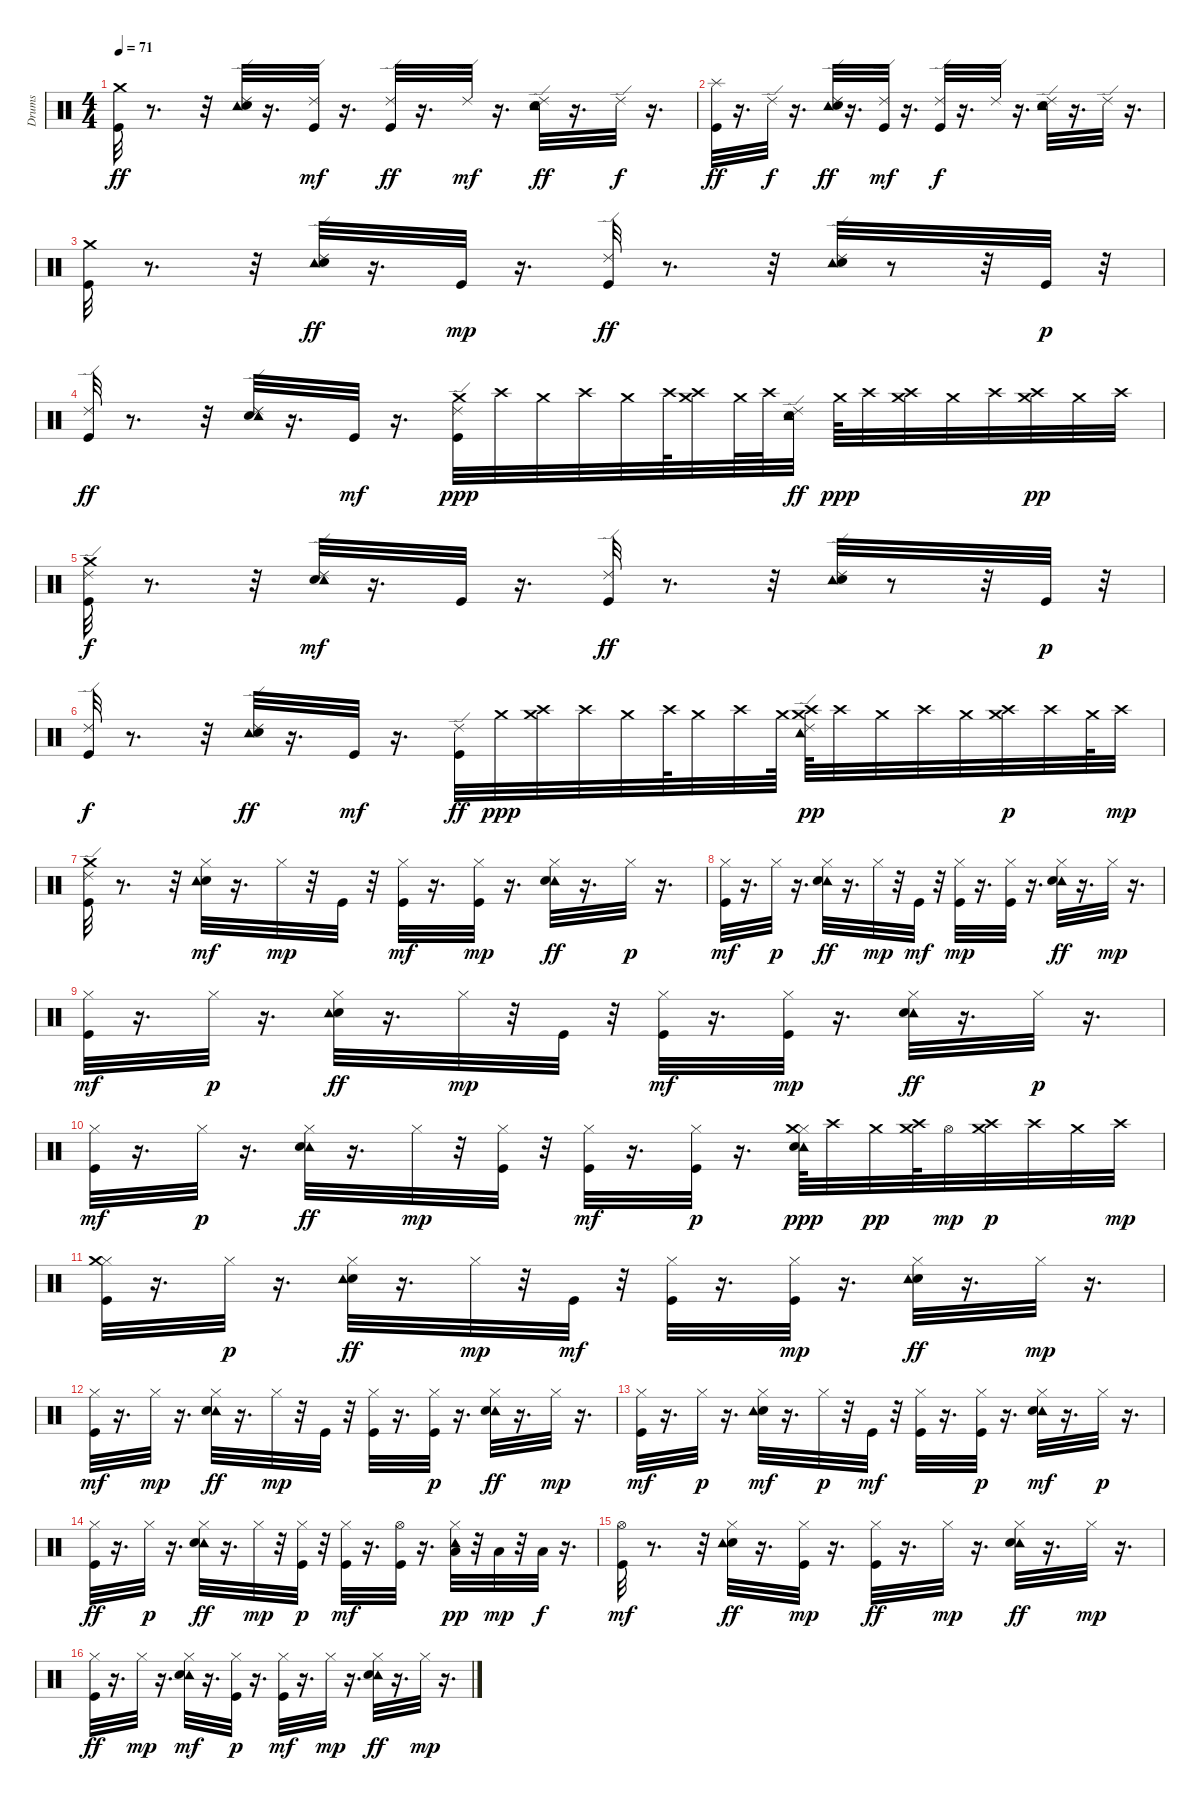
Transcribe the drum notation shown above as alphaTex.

\track ("Drums" "Drums") {instrument percussion}
\staff {score}
\articulation defaults
\ts (4 4)
\tempo 71
\clef neutral
\ks c
("Crash medium (hit)" "Kick (hit)").32{dy ff} r.8{d} r.32 ("Tambourine (hit)" "Ride (edge) 2" "Snare (hit) 2").32 r.16{d} ("Kick (hit)" "Ride (edge) 2").32{dy mf} r.16{d} ("Kick (hit)" "Ride (edge) 2").32{dy ff} r.16{d} "Ride (edge) 2".32{dy mf} r.16{d} ("Ride (edge) 2" "Tambourine (hit)" "Snare (hit) 2").32{dy ff} r.16{d} "Ride (edge) 2".32{dy f} r.16{d} |
("Splash (hit)" "Kick (hit)").32{dy ff} r.16{d} "Ride (edge) 2".32{dy f} r.16{d} ("Ride (edge) 2" "Tambourine (hit)" "Snare (hit) 2").32{dy ff} r.16{d} ("Kick (hit)" "Ride (edge) 2").32{dy mf} r.16{d} ("Kick (hit)" "Ride (edge) 2").32{dy f} r.16{d} "Ride (edge) 2".32 r.16{d} ("Tambourine (hit)" "Snare (hit) 2" "Ride (edge) 2").32 r.16{d} "Ride (edge) 2".32 r.16{d} |
("Kick (hit)" "Crash medium (hit)").32 r.8{d} r.32 ("Ride (edge) 2" "Tambourine (hit)" "Snare (hit) 2").32{dy ff} r.16{d} "Kick (hit)".32{dy mp} r.16{d} ("Ride (edge) 2" "Kick (hit)").32{dy ff} r.8{d} r.32 ("Ride (edge) 2" "Tambourine (hit)" "Snare (hit) 2").32 r.8 r.32 "Kick (hit)".32{dy p} r.32 |
("Kick (hit)" "Ride (edge) 2").32{dy ff} r.8{d} r.32 ("Snare (hit) 2" "Ride (edge) 2" "Tambourine (hit)").32 r.16{d} "Kick (hit)".32{dy mf} r.16{d} ("Kick (hit)" "Ride (edge) 2" "Crash medium (hit)").32{dy ppp} "Crash high (hit)".32 "Crash medium (hit)".32 "Crash high (hit)".32 "Crash medium (hit)".32 "Crash high (hit)".64 ("Crash medium (hit)" "Crash high (hit)").32 "Crash medium (hit)".64 "Crash high (hit)".64 ("Snare (hit) 2" "Ride (edge) 2" "Tambourine (hit)").32{dy ff} "Crash medium (hit)".64{dy ppp} "Crash high (hit)".32 ("Crash medium (hit)" "Crash high (hit)").32 "Crash medium (hit)".32 "Crash high (hit)".32 ("Crash medium (hit)" "Crash high (hit)").32{dy pp} "Crash medium (hit)".32 "Crash high (hit)".32 |
("Kick (hit)" "Ride (edge) 2" "Crash medium (hit)").32{dy f} r.8{d} r.32 ("Ride (edge) 2" "Snare (hit) 2" "Tambourine (hit)").32{dy mf} r.16{d} "Kick (hit)".32 r.16{d} ("Kick (hit)" "Ride (edge) 2").32{dy ff} r.8{d} r.32 ("Ride (edge) 2" "Tambourine (hit)" "Snare (hit) 2").32 r.8 r.32 "Kick (hit)".32{dy p} r.32 |
("Kick (hit)" "Ride (edge) 2").32{dy f} r.8{d} r.32 ("Ride (edge) 2" "Tambourine (hit)" "Snare (hit) 2").32{dy ff} r.16{d} "Kick (hit)".32{dy mf} r.16{d} ("Kick (hit)" "Ride (edge) 2").32{dy ff} "Crash medium (hit)".32{dy ppp} ("Crash high (hit)" "Crash medium (hit)").32 "Crash high (hit)".32 "Crash medium (hit)".32 "Crash high (hit)".64 "Crash medium (hit)".32 "Crash high (hit)".32 "Crash medium (hit)".64 ("Crash high (hit)" "Tambourine (hit)" "Ride (edge) 2" "Crash medium (hit)").64{dy pp} "Crash high (hit)".32 "Crash medium (hit)".32 "Crash high (hit)".32 "Crash medium (hit)".32 ("Crash high (hit)" "Crash medium (hit)").32{dy p} "Crash high (hit)".32 "Crash medium (hit)".64 "Crash high (hit)".32{dy mp} |
("Kick (hit)" "Ride (edge) 2" "Crash medium (hit)").32 r.8{d} r.32 ("Snare (hit) 2" "Hi-Hat (closed)" "Tambourine (hit)").32{dy mf} r.16{d} "Hi-Hat (closed)".32{dy mp} r.32 "Kick (hit)".32 r.32 ("Kick (hit)" "Hi-Hat (closed)").32{dy mf} r.16{d} ("Kick (hit)" "Hi-Hat (closed)").32{dy mp} r.16{d} ("Hi-Hat (closed)" "Tambourine (hit)" "Snare (hit) 2").32{dy ff} r.16{d} "Hi-Hat (closed)".32{dy p} r.16{d} |
("Kick (hit)" "Hi-Hat (closed)").32{dy mf} r.16{d} "Hi-Hat (closed)".32{dy p} r.16{d} ("Hi-Hat (closed)" "Tambourine (hit)" "Snare (hit) 2").32{dy ff} r.16{d} "Hi-Hat (closed)".32{dy mp} r.32 "Kick (hit)".32{dy mf} r.32 ("Kick (hit)" "Hi-Hat (closed)").32{dy mp} r.16{d} ("Kick (hit)" "Hi-Hat (closed)").32 r.16{d} ("Hi-Hat (closed)" "Tambourine (hit)" "Snare (hit) 2").32{dy ff} r.16{d} "Hi-Hat (closed)".32{dy mp} r.16{d} |
("Kick (hit)" "Hi-Hat (closed)").32{dy mf} r.16{d} "Hi-Hat (closed)".32{dy p} r.16{d} ("Hi-Hat (closed)" "Snare (hit) 2" "Tambourine (hit)").32{dy ff} r.16{d} "Hi-Hat (closed)".32{dy mp} r.32 "Kick (hit)".32 r.32 ("Kick (hit)" "Hi-Hat (closed)").32{dy mf} r.16{d} ("Kick (hit)" "Hi-Hat (closed)").32{dy mp} r.16{d} ("Hi-Hat (closed)" "Tambourine (hit)" "Snare (hit) 2").32{dy ff} r.16{d} "Hi-Hat (closed)".32{dy p} r.16{d} |
("Kick (hit)" "Hi-Hat (closed)").32{dy mf} r.16{d} "Hi-Hat (closed)".32{dy p} r.16{d} ("Hi-Hat (closed)" "Tambourine (hit)" "Snare (hit) 2").32{dy ff} r.16{d} "Hi-Hat (closed)".32{dy mp} r.32 ("Kick (hit)" "Hi-Hat (closed)").32 r.32 ("Kick (hit)" "Hi-Hat (closed)").32{dy mf} r.16{d} ("Kick (hit)" "Hi-Hat (closed)").32{dy p} r.16{d} ("Hi-Hat (closed)" "Tambourine (hit)" "Snare (hit) 2" "Crash medium (hit)").64{dy ppp} "Crash high (hit)".32 "Crash medium (hit)".32{dy pp} ("Crash high (hit)" "Crash medium (hit)").64 "Hi-Hat (open)".32{dy mp} ("Crash high (hit)" "Crash medium (hit)").32{dy p} "Crash high (hit)".32 "Crash medium (hit)".32 "Crash high (hit)".32{dy mp} |
("Kick (hit)" "Hi-Hat (closed)" "Crash medium (hit)").32 r.16{d} "Hi-Hat (closed)".32{dy p} r.16{d} ("Hi-Hat (closed)" "Snare (hit) 2" "Tambourine (hit)").32{dy ff} r.16{d} "Hi-Hat (closed)".32{dy mp} r.32 "Kick (hit)".32{dy mf} r.32 ("Kick (hit)" "Hi-Hat (closed)").32 r.16{d} ("Kick (hit)" "Hi-Hat (closed)").32{dy mp} r.16{d} ("Hi-Hat (closed)" "Snare (hit) 2" "Tambourine (hit)").32{dy ff} r.16{d} "Hi-Hat (closed)".32{dy mp} r.16{d} |
("Kick (hit)" "Hi-Hat (closed)").32{dy mf} r.16{d} "Hi-Hat (closed)".32{dy mp} r.16{d} ("Hi-Hat (closed)" "Tambourine (hit)" "Snare (hit) 2").32{dy ff} r.16{d} "Hi-Hat (closed)".32{dy mp} r.32 "Kick (hit)".32 r.32 ("Hi-Hat (closed)" "Kick (hit)").32 r.16{d} ("Kick (hit)" "Hi-Hat (closed)").32{dy p} r.16{d} ("Hi-Hat (closed)" "Tambourine (hit)" "Snare (hit) 2").32{dy ff} r.16{d} "Hi-Hat (closed)".32{dy mp} r.16{d} |
("Kick (hit)" "Hi-Hat (closed)").32{dy mf} r.16{d} "Hi-Hat (closed)".32{dy p} r.16{d} ("Snare (hit) 2" "Hi-Hat (closed)" "Tambourine (hit)").32{dy mf} r.16{d} "Hi-Hat (closed)".32{dy p} r.32 "Kick (hit)".32{dy mf} r.32 ("Kick (hit)" "Hi-Hat (closed)").32 r.16{d} ("Kick (hit)" "Hi-Hat (closed)").32{dy p} r.16{d} ("Hi-Hat (closed)" "Tambourine (hit)" "Snare (hit) 2").32{dy mf} r.16{d} "Hi-Hat (closed)".32{dy p} r.16{d} |
("Hi-Hat (closed)" "Kick (hit)").32{dy ff} r.16{d} "Hi-Hat (closed)".32{dy p} r.16{d} ("Hi-Hat (closed)" "Tambourine (hit)" "Snare (hit) 2").32{dy ff} r.16{d} "Hi-Hat (closed)".32{dy mp} r.32 ("Kick (hit)" "Hi-Hat (closed)").32{dy p} r.32 ("Kick (hit)" "Hi-Hat (closed)").32{dy mf} r.16{d} ("Kick (hit)" "Hi-Hat (open)").32 r.16{d} ("Hi-Hat (closed)" "Tambourine (hit)" "Low Tom (hit)").32{dy pp} r.32 "Low Tom (hit)".32{dy mp} r.32 "Low Tom (hit)".32{dy f} r.16{d} |
("Kick (hit)" "Hi-Hat (open)").32{dy mf} r.8{d} r.32 ("Hi-Hat (closed)" "Snare (hit) 2" "Tambourine (hit)").32{dy ff} r.16{d} ("Hi-Hat (closed)" "Kick (hit)").32{dy mp} r.16{d} ("Hi-Hat (closed)" "Kick (hit)").32{dy ff} r.16{d} "Hi-Hat (closed)".32{dy mp} r.16{d} ("Hi-Hat (closed)" "Tambourine (hit)" "Snare (hit) 2").32{dy ff} r.16{d} "Hi-Hat (closed)".32{dy mp} r.16{d} |
("Hi-Hat (closed)" "Kick (hit)").32{dy ff} r.16{d} "Hi-Hat (closed)".32{dy mp} r.16{d} ("Tambourine (hit)" "Snare (hit) 2" "Hi-Hat (closed)").32{dy mf} r.16{d} ("Kick (hit)" "Hi-Hat (closed)").32{dy p} r.16{d} ("Kick (hit)" "Hi-Hat (closed)").32{dy mf} r.16{d} "Hi-Hat (closed)".32{dy mp} r.16{d} ("Hi-Hat (closed)" "Tambourine (hit)" "Snare (hit) 2").32{dy ff} r.16{d} "Hi-Hat (closed)".32{dy mp} r.16{d}
